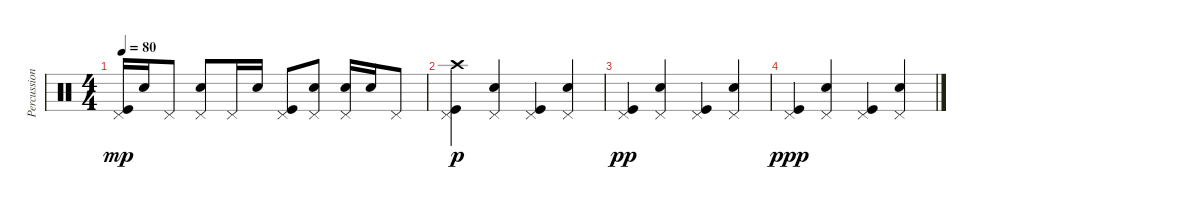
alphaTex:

\track ("Percussion" "Percussion") {instrument percussion}
\staff {score}
\articulation defaults
\ts (4 4)
\tempo 80
\clef neutral
\ks c
("Kick (hit)" "Pedal Hi-Hat (hit)").16{dy mp} "Snare (hit) 2".16 "Pedal Hi-Hat (hit)".8 ("Snare (hit) 2" "Pedal Hi-Hat (hit)").8 "Pedal Hi-Hat (hit)".16 "Snare (hit) 2".16 ("Kick (hit)" "Pedal Hi-Hat (hit)").8 ("Snare (hit) 2" "Pedal Hi-Hat (hit)").8 ("Snare (hit) 2" "Pedal Hi-Hat (hit)").16 "Snare (hit) 2".16 "Pedal Hi-Hat (hit)".8 |
("Kick (hit)" "Pedal Hi-Hat (hit)" "Crash high (hit)").4{dy p} ("Snare (hit) 2" "Pedal Hi-Hat (hit)").4 ("Kick (hit)" "Pedal Hi-Hat (hit)").4 ("Snare (hit) 2" "Pedal Hi-Hat (hit)").4 |
("Kick (hit)" "Pedal Hi-Hat (hit)").4{dy pp} ("Snare (hit) 2" "Pedal Hi-Hat (hit)").4 ("Kick (hit)" "Pedal Hi-Hat (hit)").4 ("Snare (hit) 2" "Pedal Hi-Hat (hit)").4 |
("Kick (hit)" "Pedal Hi-Hat (hit)").4{dy ppp} ("Snare (hit) 2" "Pedal Hi-Hat (hit)").4 ("Kick (hit)" "Pedal Hi-Hat (hit)").4 ("Snare (hit) 2" "Pedal Hi-Hat (hit)").4
